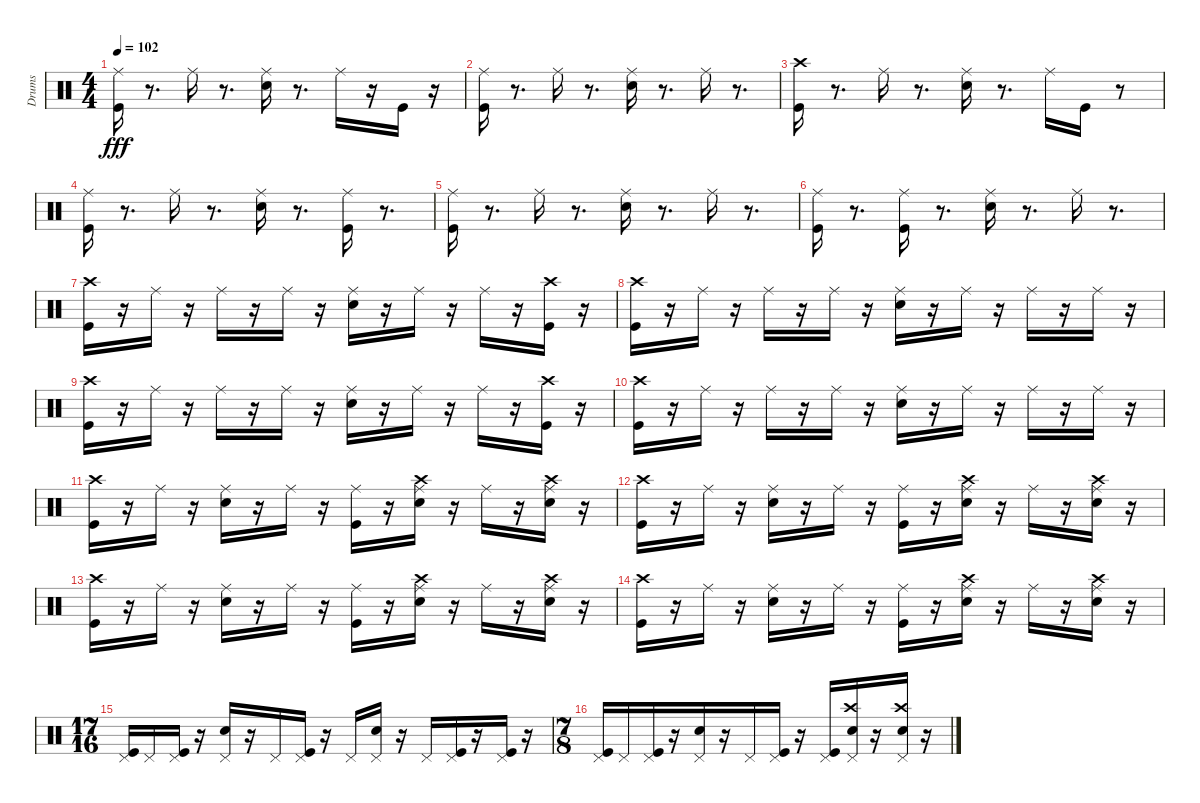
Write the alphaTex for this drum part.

\track ("Drums" "Drums") {instrument percussion}
\staff {score}
\articulation defaults
\ts (4 4)
\tempo 102
\clef neutral
\ks c
("Ride (middle)" "Kick (hit)").16{dy fff} r.8{d} "Ride (middle)".16 r.8{d} ("Ride (middle)" "Snare (hit) 2").16 r.8{d} "Ride (middle)".16 r.16 "Kick (hit)".16 r.16 |
("Ride (middle)" "Kick (hit)").16 r.8{d} "Ride (middle)".16 r.8{d} ("Snare (hit) 2" "Ride (middle)").16 r.8{d} "Ride (middle)".16 r.8{d} |
("Crash high (hit)" "Kick (hit)").16 r.8{d} "Ride (middle)".16 r.8{d} ("Snare (hit) 2" "Ride (middle)").16 r.8{d} "Ride (middle)".16 "Kick (hit)".16 r.8 |
("Ride (middle)" "Kick (hit)").16 r.8{d} "Ride (middle)".16 r.8{d} ("Ride (middle)" "Snare (hit) 2").16 r.8{d} ("Kick (hit)" "Ride (middle)").16 r.8{d} |
("Kick (hit)" "Ride (middle)").16 r.8{d} "Ride (middle)".16 r.8{d} ("Snare (hit) 2" "Ride (middle)").16 r.8{d} "Ride (middle)".16 r.8{d} |
("Kick (hit)" "Ride (middle)").16 r.8{d} ("Kick (hit)" "Ride (middle)").16 r.8{d} ("Snare (hit) 2" "Ride (middle)").16 r.8{d} "Ride (middle)".16 r.8{d} |
("Kick (hit)" "Crash high (hit)").16 r.16 "Ride (middle)".16 r.16 "Ride (middle)".16 r.16 "Ride (middle)".16 r.16 ("Snare (hit) 2" "Ride (middle)").16 r.16 "Ride (middle)".16 r.16 "Ride (middle)".16 r.16 ("Crash high (hit)" "Kick (hit)").16 r.16 |
("Crash high (hit)" "Kick (hit)").16 r.16 "Ride (middle)".16 r.16 "Ride (middle)".16 r.16 "Ride (middle)".16 r.16 ("Ride (middle)" "Snare (hit) 2").16 r.16 "Ride (middle)".16 r.16 "Ride (middle)".16 r.16 "Ride (middle)".16 r.16 |
("Crash high (hit)" "Kick (hit)").16 r.16 "Ride (middle)".16 r.16 "Ride (middle)".16 r.16 "Ride (middle)".16 r.16 ("Ride (middle)" "Snare (hit) 2").16 r.16 "Ride (middle)".16 r.16 "Ride (middle)".16 r.16 ("Crash high (hit)" "Kick (hit)").16 r.16 |
("Crash high (hit)" "Kick (hit)").16 r.16 "Ride (middle)".16 r.16 "Ride (middle)".16 r.16 "Ride (middle)".16 r.16 ("Snare (hit) 2" "Ride (middle)").16 r.16 "Ride (middle)".16 r.16 "Ride (middle)".16 r.16 "Ride (middle)".16 r.16 |
("Crash high (hit)" "Kick (hit)").16 r.16 "Ride (middle)".16 r.16 ("Ride (middle)" "Snare (hit) 2").16 r.16 "Ride (middle)".16 r.16 ("Ride (middle)" "Kick (hit)").16 r.16 ("Ride (middle)" "Crash high (hit)" "Snare (hit) 2").16 r.16 "Ride (middle)".16 r.16 ("Ride (middle)" "Crash high (hit)" "Snare (hit) 2").16 r.16 |
("Kick (hit)" "Crash high (hit)").16 r.16 "Ride (middle)".16 r.16 ("Snare (hit) 2" "Ride (middle)").16 r.16 "Ride (middle)".16 r.16 ("Kick (hit)" "Ride (middle)").16 r.16 ("Snare (hit) 2" "Crash high (hit)" "Ride (middle)").16 r.16 "Ride (middle)".16 r.16 ("Snare (hit) 2" "Crash high (hit)" "Ride (middle)").16 r.16 |
("Kick (hit)" "Crash high (hit)").16 r.16 "Ride (middle)".16 r.16 ("Snare (hit) 2" "Ride (middle)").16 r.16 "Ride (middle)".16 r.16 ("Kick (hit)" "Ride (middle)").16 r.16 ("Snare (hit) 2" "Crash high (hit)" "Ride (middle)").16 r.16 "Ride (middle)".16 r.16 ("Snare (hit) 2" "Crash high (hit)" "Ride (middle)").16 r.16 |
("Crash high (hit)" "Kick (hit)").16 r.16 "Ride (middle)".16 r.16 ("Ride (middle)" "Snare (hit) 2").16 r.16 "Ride (middle)".16 r.16 ("Ride (middle)" "Kick (hit)").16 r.16 ("Ride (middle)" "Crash high (hit)" "Snare (hit) 2").16 r.16 "Ride (middle)".16 r.16 ("Ride (middle)" "Crash high (hit)" "Snare (hit) 2").16 r.16 |
\ts (17 16)
("Kick (hit)" "Pedal Hi-Hat (hit)").16 "Pedal Hi-Hat (hit)".16 ("Kick (hit)" "Pedal Hi-Hat (hit)").16 r.16 ("Snare (hit) 2" "Pedal Hi-Hat (hit)").16 r.16 "Pedal Hi-Hat (hit)".16 ("Kick (hit)" "Pedal Hi-Hat (hit)").16 r.16 "Pedal Hi-Hat (hit)".16 ("Snare (hit) 2" "Pedal Hi-Hat (hit)").16 r.16 "Pedal Hi-Hat (hit)".16 ("Kick (hit)" "Pedal Hi-Hat (hit)").16 r.16 ("Kick (hit)" "Pedal Hi-Hat (hit)").16 r.16 |
\ts (7 8)
("Kick (hit)" "Pedal Hi-Hat (hit)").16 "Pedal Hi-Hat (hit)".16 ("Kick (hit)" "Pedal Hi-Hat (hit)").16 r.16 ("Snare (hit) 2" "Pedal Hi-Hat (hit)").16 r.16 "Pedal Hi-Hat (hit)".16 ("Kick (hit)" "Pedal Hi-Hat (hit)").16 r.16 ("Kick (hit)" "Pedal Hi-Hat (hit)").16 ("Crash high (hit)" "Snare (hit) 2" "Pedal Hi-Hat (hit)").16 r.16 ("Snare (hit) 2" "Crash high (hit)" "Pedal Hi-Hat (hit)").16 r.16
